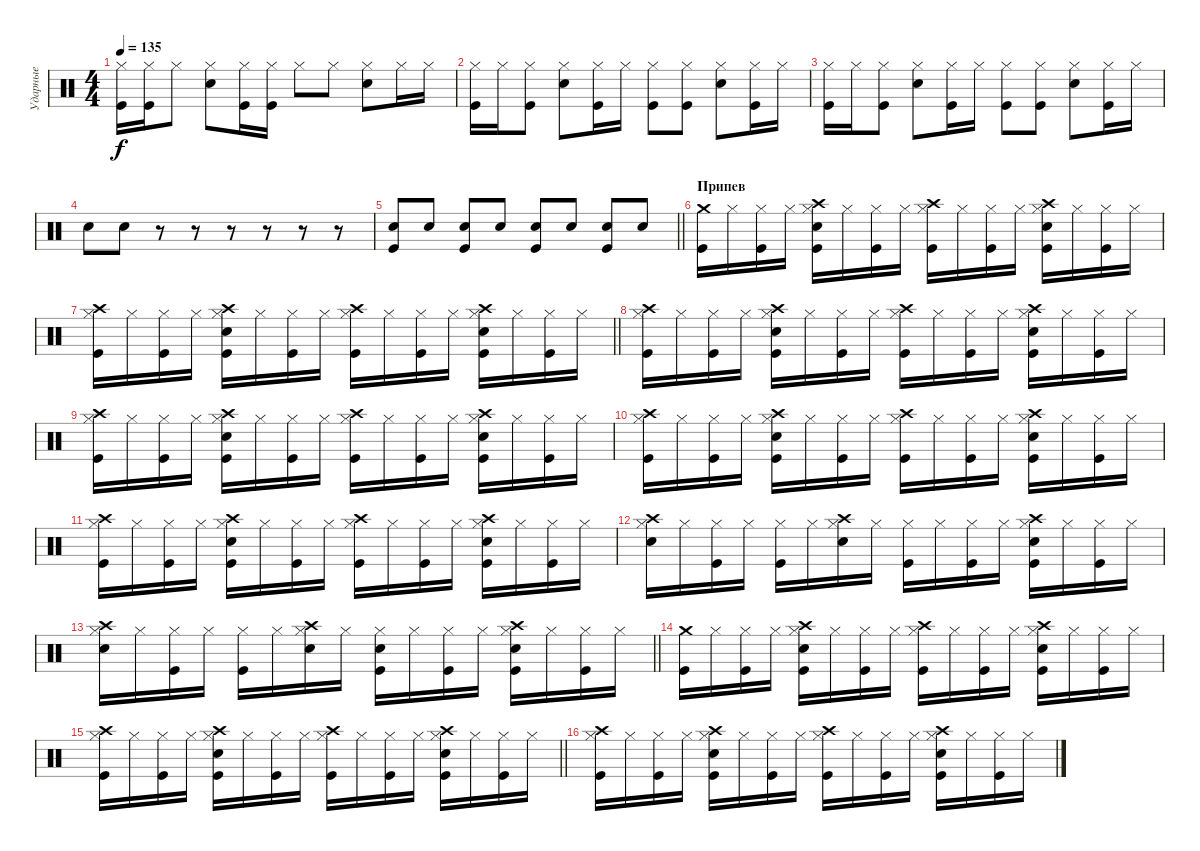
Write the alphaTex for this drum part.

\track ("Ударные" "Ударные") {instrument percussion}
\staff {score}
\articulation defaults
\ts (4 4)
\tempo 135
\clef neutral
\ks c
("Hi-Hat (closed)" "Kick (hit)").16{dy f} ("Hi-Hat (closed)" "Kick (hit)").16 "Hi-Hat (closed)".8 ("Hi-Hat (closed)" "Electric Snare (hit)").8 ("Hi-Hat (closed)" "Kick (hit)").16 ("Hi-Hat (closed)" "Kick (hit)").16 "Hi-Hat (closed)".8 "Hi-Hat (closed)".8 ("Hi-Hat (closed)" "Electric Snare (hit)").8 "Hi-Hat (closed)".16 "Hi-Hat (closed)".16 |
("Hi-Hat (closed)" "Kick (hit)").16 "Hi-Hat (closed)".16 ("Hi-Hat (closed)" "Kick (hit)").8 ("Hi-Hat (closed)" "Electric Snare (hit)").8 ("Hi-Hat (closed)" "Kick (hit)").16 "Hi-Hat (closed)".16 ("Hi-Hat (closed)" "Kick (hit)").8 ("Hi-Hat (closed)" "Kick (hit)").8 ("Hi-Hat (closed)" "Electric Snare (hit)").8 ("Hi-Hat (closed)" "Kick (hit)").16 "Hi-Hat (closed)".16 |
("Hi-Hat (closed)" "Kick (hit)").16 "Hi-Hat (closed)".16 ("Hi-Hat (closed)" "Kick (hit)").8 ("Hi-Hat (closed)" "Electric Snare (hit)").8 ("Hi-Hat (closed)" "Kick (hit)").16 "Hi-Hat (closed)".16 ("Hi-Hat (closed)" "Kick (hit)").8 ("Hi-Hat (closed)" "Kick (hit)").8 ("Hi-Hat (closed)" "Electric Snare (hit)").8 ("Hi-Hat (closed)" "Kick (hit)").16 "Hi-Hat (closed)".16 |
"Electric Snare (hit)".8 "Electric Snare (hit)".8 r.8 r.8 r.8 r.8 r.8 r.8 |
\barLineRight lightlight
("Electric Snare (hit)" "Kick (hit)").8 "Electric Snare (hit)".8 ("Electric Snare (hit)" "Kick (hit)").8 "Electric Snare (hit)".8 ("Electric Snare (hit)" "Kick (hit)").8 "Electric Snare (hit)".8 ("Electric Snare (hit)" "Kick (hit)").8 "Electric Snare (hit)".8 |
\section ("" "Припев")
("Crash medium (hit)" "Kick (hit)").16 "Hi-Hat (closed)".16 ("Hi-Hat (closed)" "Kick (hit)").16 "Hi-Hat (closed)".16 ("Crash high (hit)" "Hi-Hat (closed)" "Electric Snare (hit)" "Kick (hit)").16 "Hi-Hat (closed)".16 ("Hi-Hat (closed)" "Kick (hit)").16 "Hi-Hat (closed)".16 ("Crash high (hit)" "Hi-Hat (closed)" "Kick (hit)").16 "Hi-Hat (closed)".16 ("Hi-Hat (closed)" "Kick (hit)").16 "Hi-Hat (closed)".16 ("Crash high (hit)" "Hi-Hat (closed)" "Electric Snare (hit)" "Kick (hit)").16 "Hi-Hat (closed)".16 ("Hi-Hat (closed)" "Kick (hit)").16 "Hi-Hat (closed)".16 |
\barLineRight lightlight
("Crash high (hit)" "Hi-Hat (closed)" "Kick (hit)").16 "Hi-Hat (closed)".16 ("Hi-Hat (closed)" "Kick (hit)").16 "Hi-Hat (closed)".16 ("Crash high (hit)" "Hi-Hat (closed)" "Electric Snare (hit)" "Kick (hit)").16 "Hi-Hat (closed)".16 ("Hi-Hat (closed)" "Kick (hit)").16 "Hi-Hat (closed)".16 ("Crash high (hit)" "Hi-Hat (closed)" "Kick (hit)").16 "Hi-Hat (closed)".16 ("Hi-Hat (closed)" "Kick (hit)").16 "Hi-Hat (closed)".16 ("Crash high (hit)" "Hi-Hat (closed)" "Electric Snare (hit)" "Kick (hit)").16 "Hi-Hat (closed)".16 ("Hi-Hat (closed)" "Kick (hit)").16 "Hi-Hat (closed)".16 |
("Crash high (hit)" "Hi-Hat (closed)" "Kick (hit)").16 "Hi-Hat (closed)".16 ("Hi-Hat (closed)" "Kick (hit)").16 "Hi-Hat (closed)".16 ("Crash high (hit)" "Hi-Hat (closed)" "Electric Snare (hit)" "Kick (hit)").16 "Hi-Hat (closed)".16 ("Hi-Hat (closed)" "Kick (hit)").16 "Hi-Hat (closed)".16 ("Crash high (hit)" "Hi-Hat (closed)" "Kick (hit)").16 "Hi-Hat (closed)".16 ("Hi-Hat (closed)" "Kick (hit)").16 "Hi-Hat (closed)".16 ("Crash high (hit)" "Hi-Hat (closed)" "Electric Snare (hit)" "Kick (hit)").16 "Hi-Hat (closed)".16 ("Hi-Hat (closed)" "Kick (hit)").16 "Hi-Hat (closed)".16 |
("Crash high (hit)" "Hi-Hat (closed)" "Kick (hit)").16 "Hi-Hat (closed)".16 ("Hi-Hat (closed)" "Kick (hit)").16 "Hi-Hat (closed)".16 ("Crash high (hit)" "Hi-Hat (closed)" "Electric Snare (hit)" "Kick (hit)").16 "Hi-Hat (closed)".16 ("Hi-Hat (closed)" "Kick (hit)").16 "Hi-Hat (closed)".16 ("Crash high (hit)" "Hi-Hat (closed)" "Kick (hit)").16 "Hi-Hat (closed)".16 ("Hi-Hat (closed)" "Kick (hit)").16 "Hi-Hat (closed)".16 ("Crash high (hit)" "Hi-Hat (closed)" "Electric Snare (hit)" "Kick (hit)").16 "Hi-Hat (closed)".16 ("Hi-Hat (closed)" "Kick (hit)").16 "Hi-Hat (closed)".16 |
("Crash high (hit)" "Hi-Hat (closed)" "Kick (hit)").16 "Hi-Hat (closed)".16 ("Hi-Hat (closed)" "Kick (hit)").16 "Hi-Hat (closed)".16 ("Crash high (hit)" "Hi-Hat (closed)" "Electric Snare (hit)" "Kick (hit)").16 "Hi-Hat (closed)".16 ("Hi-Hat (closed)" "Kick (hit)").16 "Hi-Hat (closed)".16 ("Crash high (hit)" "Hi-Hat (closed)" "Kick (hit)").16 "Hi-Hat (closed)".16 ("Hi-Hat (closed)" "Kick (hit)").16 "Hi-Hat (closed)".16 ("Crash high (hit)" "Hi-Hat (closed)" "Electric Snare (hit)" "Kick (hit)").16 "Hi-Hat (closed)".16 ("Hi-Hat (closed)" "Kick (hit)").16 "Hi-Hat (closed)".16 |
("Crash high (hit)" "Hi-Hat (closed)" "Kick (hit)").16 "Hi-Hat (closed)".16 ("Hi-Hat (closed)" "Kick (hit)").16 "Hi-Hat (closed)".16 ("Crash high (hit)" "Hi-Hat (closed)" "Electric Snare (hit)" "Kick (hit)").16 "Hi-Hat (closed)".16 ("Hi-Hat (closed)" "Kick (hit)").16 "Hi-Hat (closed)".16 ("Crash high (hit)" "Hi-Hat (closed)" "Kick (hit)").16 "Hi-Hat (closed)".16 ("Hi-Hat (closed)" "Kick (hit)").16 "Hi-Hat (closed)".16 ("Crash high (hit)" "Hi-Hat (closed)" "Electric Snare (hit)" "Kick (hit)").16 "Hi-Hat (closed)".16 ("Hi-Hat (closed)" "Kick (hit)").16 "Hi-Hat (closed)".16 |
("Crash high (hit)" "Hi-Hat (closed)" "Electric Snare (hit)").16 "Hi-Hat (closed)".16 ("Hi-Hat (closed)" "Kick (hit)").16 "Hi-Hat (closed)".16 ("Hi-Hat (closed)" "Kick (hit)").16 "Hi-Hat (closed)".16 ("Crash high (hit)" "Hi-Hat (closed)" "Electric Snare (hit)").16 "Hi-Hat (closed)".16 ("Hi-Hat (closed)" "Kick (hit)").16 "Hi-Hat (closed)".16 ("Hi-Hat (closed)" "Kick (hit)").16 "Hi-Hat (closed)".16 ("Crash high (hit)" "Hi-Hat (closed)" "Electric Snare (hit)" "Kick (hit)").16 "Hi-Hat (closed)".16 ("Hi-Hat (closed)" "Kick (hit)").16 "Hi-Hat (closed)".16 |
\barLineRight lightlight
("Crash high (hit)" "Hi-Hat (closed)" "Electric Snare (hit)").16 "Hi-Hat (closed)".16 ("Hi-Hat (closed)" "Kick (hit)").16 "Hi-Hat (closed)".16 ("Hi-Hat (closed)" "Kick (hit)").16 "Hi-Hat (closed)".16 ("Crash high (hit)" "Hi-Hat (closed)" "Electric Snare (hit)").16 "Hi-Hat (closed)".16 ("Hi-Hat (closed)" "Electric Snare (hit)" "Kick (hit)").16 "Hi-Hat (closed)".16 ("Hi-Hat (closed)" "Kick (hit)").16 "Hi-Hat (closed)".16 ("Crash high (hit)" "Hi-Hat (closed)" "Electric Snare (hit)" "Kick (hit)").16 "Hi-Hat (closed)".16 ("Hi-Hat (closed)" "Kick (hit)").16 "Hi-Hat (closed)".16 |
\section ("" " ")
("Crash medium (hit)" "Kick (hit)").16 "Hi-Hat (closed)".16 ("Hi-Hat (closed)" "Kick (hit)").16 "Hi-Hat (closed)".16 ("Crash high (hit)" "Hi-Hat (closed)" "Electric Snare (hit)" "Kick (hit)").16 "Hi-Hat (closed)".16 ("Hi-Hat (closed)" "Kick (hit)").16 "Hi-Hat (closed)".16 ("Crash high (hit)" "Hi-Hat (closed)" "Kick (hit)").16 "Hi-Hat (closed)".16 ("Hi-Hat (closed)" "Kick (hit)").16 "Hi-Hat (closed)".16 ("Crash high (hit)" "Hi-Hat (closed)" "Electric Snare (hit)" "Kick (hit)").16 "Hi-Hat (closed)".16 ("Hi-Hat (closed)" "Kick (hit)").16 "Hi-Hat (closed)".16 |
\barLineRight lightlight
("Crash high (hit)" "Hi-Hat (closed)" "Kick (hit)").16 "Hi-Hat (closed)".16 ("Hi-Hat (closed)" "Kick (hit)").16 "Hi-Hat (closed)".16 ("Crash high (hit)" "Hi-Hat (closed)" "Electric Snare (hit)" "Kick (hit)").16 "Hi-Hat (closed)".16 ("Hi-Hat (closed)" "Kick (hit)").16 "Hi-Hat (closed)".16 ("Crash high (hit)" "Hi-Hat (closed)" "Kick (hit)").16 "Hi-Hat (closed)".16 ("Hi-Hat (closed)" "Kick (hit)").16 "Hi-Hat (closed)".16 ("Crash high (hit)" "Hi-Hat (closed)" "Electric Snare (hit)" "Kick (hit)").16 "Hi-Hat (closed)".16 ("Hi-Hat (closed)" "Kick (hit)").16 "Hi-Hat (closed)".16 |
("Crash high (hit)" "Hi-Hat (closed)" "Kick (hit)").16 "Hi-Hat (closed)".16 ("Hi-Hat (closed)" "Kick (hit)").16 "Hi-Hat (closed)".16 ("Crash high (hit)" "Hi-Hat (closed)" "Electric Snare (hit)" "Kick (hit)").16 "Hi-Hat (closed)".16 ("Hi-Hat (closed)" "Kick (hit)").16 "Hi-Hat (closed)".16 ("Crash high (hit)" "Hi-Hat (closed)" "Kick (hit)").16 "Hi-Hat (closed)".16 ("Hi-Hat (closed)" "Kick (hit)").16 "Hi-Hat (closed)".16 ("Crash high (hit)" "Hi-Hat (closed)" "Electric Snare (hit)" "Kick (hit)").16 "Hi-Hat (closed)".16 ("Hi-Hat (closed)" "Kick (hit)").16 "Hi-Hat (closed)".16
